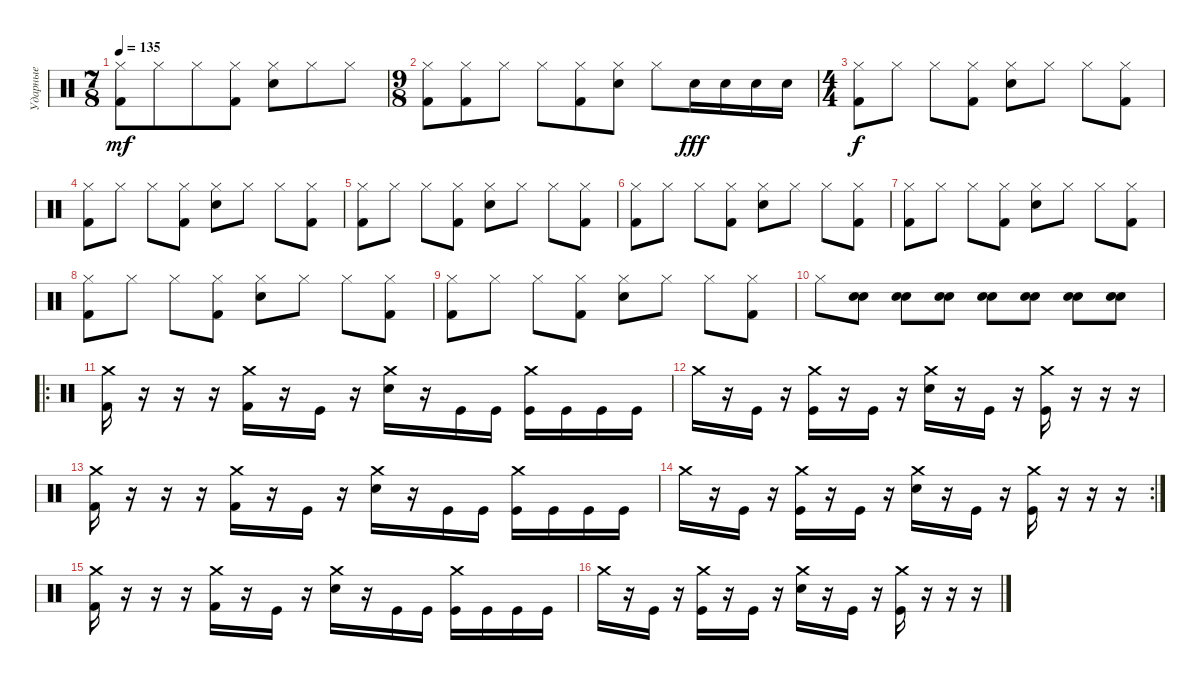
\track ("Ударные" "Ударные") {instrument percussion}
\staff {score}
\articulation defaults
\ts (7 8)
\tempo 135
\clef neutral
\ks c
("Hi-Hat (closed)" "Kick (hit) 2").8{dy mf} "Hi-Hat (closed)".8 "Hi-Hat (closed)".8 ("Hi-Hat (closed)" "Kick (hit) 2").8 ("Hi-Hat (closed)" "Snare (hit) 2").8 "Hi-Hat (closed)".8 "Hi-Hat (closed)".8 |
\ts (9 8)
("Hi-Hat (closed)" "Kick (hit) 2").8 ("Hi-Hat (closed)" "Kick (hit) 2").8 "Hi-Hat (closed)".8 "Hi-Hat (closed)".8 ("Hi-Hat (closed)" "Kick (hit) 2").8 ("Hi-Hat (closed)" "Snare (hit) 2").8 "Hi-Hat (closed)".8 "Snare (hit) 2".16{dy fff} "Snare (hit) 2".16 "Snare (hit) 2".16 "Snare (hit) 2".16 |
\ts (4 4)
("Hi-Hat (closed)" "Kick (hit) 2").8{dy f} "Hi-Hat (closed)".8 "Hi-Hat (closed)".8 ("Hi-Hat (closed)" "Kick (hit) 2").8 ("Hi-Hat (closed)" "Electric Snare (hit)").8 "Hi-Hat (closed)".8 "Hi-Hat (closed)".8 ("Hi-Hat (closed)" "Kick (hit) 2").8 |
("Hi-Hat (closed)" "Kick (hit) 2").8 "Hi-Hat (closed)".8 "Hi-Hat (closed)".8 ("Hi-Hat (closed)" "Kick (hit) 2").8 ("Hi-Hat (closed)" "Electric Snare (hit)").8 "Hi-Hat (closed)".8 "Hi-Hat (closed)".8 ("Hi-Hat (closed)" "Kick (hit) 2").8 |
("Hi-Hat (closed)" "Kick (hit) 2").8 "Hi-Hat (closed)".8 "Hi-Hat (closed)".8 ("Hi-Hat (closed)" "Kick (hit) 2").8 ("Hi-Hat (closed)" "Electric Snare (hit)").8 "Hi-Hat (closed)".8 "Hi-Hat (closed)".8 ("Hi-Hat (closed)" "Kick (hit) 2").8 |
("Hi-Hat (closed)" "Kick (hit) 2").8 "Hi-Hat (closed)".8 "Hi-Hat (closed)".8 ("Hi-Hat (closed)" "Kick (hit) 2").8 ("Hi-Hat (closed)" "Electric Snare (hit)").8 "Hi-Hat (closed)".8 "Hi-Hat (closed)".8 ("Hi-Hat (closed)" "Kick (hit) 2").8 |
("Hi-Hat (closed)" "Kick (hit) 2").8 "Hi-Hat (closed)".8 "Hi-Hat (closed)".8 ("Hi-Hat (closed)" "Kick (hit) 2").8 ("Hi-Hat (closed)" "Electric Snare (hit)").8 "Hi-Hat (closed)".8 "Hi-Hat (closed)".8 ("Hi-Hat (closed)" "Kick (hit) 2").8 |
("Hi-Hat (closed)" "Kick (hit) 2").8 "Hi-Hat (closed)".8 "Hi-Hat (closed)".8 ("Hi-Hat (closed)" "Kick (hit) 2").8 ("Hi-Hat (closed)" "Electric Snare (hit)").8 "Hi-Hat (closed)".8 "Hi-Hat (closed)".8 ("Hi-Hat (closed)" "Kick (hit) 2").8 |
("Hi-Hat (closed)" "Kick (hit) 2").8 "Hi-Hat (closed)".8 "Hi-Hat (closed)".8 ("Hi-Hat (closed)" "Kick (hit) 2").8 ("Hi-Hat (closed)" "Electric Snare (hit)").8 "Hi-Hat (closed)".8 "Hi-Hat (closed)".8 ("Hi-Hat (closed)" "Kick (hit) 2").8 |
"Hi-Hat (closed)".8 ("Snare (hit) 2" "Electric Snare (hit)").8 ("Snare (hit) 2" "Electric Snare (hit)").8 ("Snare (hit) 2" "Electric Snare (hit)").8 ("Snare (hit) 2" "Electric Snare (hit)").8 ("Snare (hit) 2" "Electric Snare (hit)").8 ("Snare (hit) 2" "Electric Snare (hit)").8 ("Snare (hit) 2" "Electric Snare (hit)").8 |
\ro
("Crash medium (hit)" "Kick (hit) 2").16 r.16 r.16 r.16 ("Crash medium (hit)" "Kick (hit) 2").16 r.16 "Kick (hit)".16 r.16 ("Crash medium (hit)" "Snare (hit) 2").16 r.16 "Kick (hit)".16 "Kick (hit)".16 ("Crash medium (hit)" "Kick (hit)").16 "Kick (hit)".16 "Kick (hit)".16 "Kick (hit)".16 |
"Crash medium (hit)".16 r.16 "Kick (hit)".16 r.16 ("Kick (hit)" "Crash medium (hit)").16 r.16 "Kick (hit)".16 r.16 ("Snare (hit) 2" "Crash medium (hit)").16 r.16 "Kick (hit)".16 r.16 ("Kick (hit)" "Crash medium (hit)").16 r.16 r.16 r.16 |
("Crash medium (hit)" "Kick (hit) 2").16 r.16 r.16 r.16 ("Crash medium (hit)" "Kick (hit) 2").16 r.16 "Kick (hit)".16 r.16 ("Crash medium (hit)" "Snare (hit) 2").16 r.16 "Kick (hit)".16 "Kick (hit)".16 ("Crash medium (hit)" "Kick (hit)").16 "Kick (hit)".16 "Kick (hit)".16 "Kick (hit)".16 |
\rc 2 "Crash medium (hit)".16
r.16 "Kick (hit)".16 r.16 ("Kick (hit)" "Crash medium (hit)").16 r.16 "Kick (hit)".16 r.16 ("Snare (hit) 2" "Crash medium (hit)").16 r.16 "Kick (hit)".16 r.16 ("Kick (hit)" "Crash medium (hit)").16 r.16 r.16 r.16 |
("Crash medium (hit)" "Kick (hit) 2").16 r.16 r.16 r.16 ("Crash medium (hit)" "Kick (hit) 2").16 r.16 "Kick (hit)".16 r.16 ("Crash medium (hit)" "Snare (hit) 2").16 r.16 "Kick (hit)".16 "Kick (hit)".16 ("Crash medium (hit)" "Kick (hit)").16 "Kick (hit)".16 "Kick (hit)".16 "Kick (hit)".16 |
"Crash medium (hit)".16 r.16 "Kick (hit)".16 r.16 ("Kick (hit)" "Crash medium (hit)").16 r.16 "Kick (hit)".16 r.16 ("Snare (hit) 2" "Crash medium (hit)").16 r.16 "Kick (hit)".16 r.16 ("Kick (hit)" "Crash medium (hit)").16 r.16 r.16 r.16
